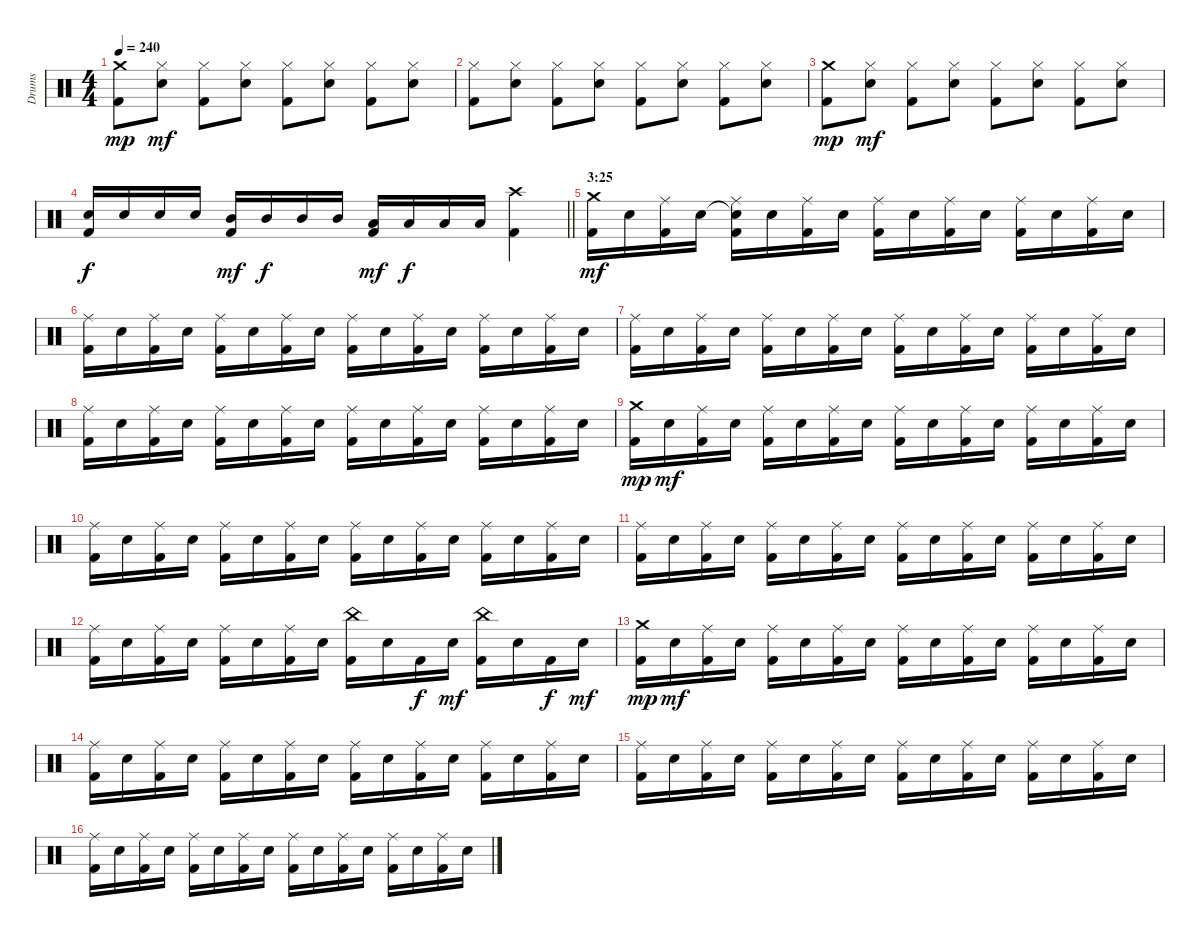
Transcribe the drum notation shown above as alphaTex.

\track ("Drums" "Drums") {instrument percussion}
\staff {score}
\articulation defaults
\ts (4 4)
\tempo 240
\clef neutral
\ks c
("Crash medium (hit)" "Kick (hit) 2").8{dy mp} ("Hi-Hat (closed)" "Electric Snare (hit)").8{dy mf} ("Hi-Hat (closed)" "Kick (hit) 2").8 ("Hi-Hat (closed)" "Electric Snare (hit)").8 ("Hi-Hat (closed)" "Kick (hit) 2").8 ("Hi-Hat (closed)" "Electric Snare (hit)").8 ("Hi-Hat (closed)" "Kick (hit) 2").8 ("Hi-Hat (closed)" "Electric Snare (hit)").8 |
("Hi-Hat (closed)" "Kick (hit) 2").8 ("Hi-Hat (closed)" "Electric Snare (hit)").8 ("Hi-Hat (closed)" "Kick (hit) 2").8 ("Hi-Hat (closed)" "Electric Snare (hit)").8 ("Hi-Hat (closed)" "Kick (hit) 2").8 ("Hi-Hat (closed)" "Electric Snare (hit)").8 ("Hi-Hat (closed)" "Kick (hit) 2").8 ("Hi-Hat (closed)" "Electric Snare (hit)").8 |
("Crash medium (hit)" "Kick (hit) 2").8{dy mp} ("Hi-Hat (closed)" "Electric Snare (hit)").8{dy mf} ("Hi-Hat (closed)" "Kick (hit) 2").8 ("Hi-Hat (closed)" "Electric Snare (hit)").8 ("Hi-Hat (closed)" "Kick (hit) 2").8 ("Hi-Hat (closed)" "Electric Snare (hit)").8 ("Hi-Hat (closed)" "Kick (hit) 2").8 ("Hi-Hat (closed)" "Electric Snare (hit)").8 |
\barLineRight lightlight
("Electric Snare (hit)" "Kick (hit) 2").16{dy f} "Electric Snare (hit)".16 "Electric Snare (hit)".16 "Electric Snare (hit)".16 ("Mid Tom (hit)" "Kick (hit) 2").16{dy mf} "Mid Tom (hit)".16{dy f} "Mid Tom (hit)".16 "Mid Tom (hit)".16 ("Low Tom (hit)" "Kick (hit) 2").16{dy mf} "Low Tom (hit)".16{dy f} "Low Tom (hit)".16 "Low Tom (hit)".16 ("Crash high (hit)" "Kick (hit) 2").4 |
\section ("" "3:25")
("Crash medium (hit)" "Kick (hit) 2").16{dy mf} "Electric Snare (hit)".16 ("Ride (middle)" "Kick (hit) 2").16 "Electric Snare (hit)".16 ("Snare (hit)"{t} "Ride (middle)" "Kick (hit) 2").16 "Electric Snare (hit)".16 ("Ride (middle)" "Kick (hit) 2").16 "Electric Snare (hit)".16 ("Ride (middle)" "Kick (hit) 2").16 "Electric Snare (hit)".16 ("Ride (middle)" "Kick (hit) 2").16 "Electric Snare (hit)".16 ("Ride (middle)" "Kick (hit) 2").16 "Electric Snare (hit)".16 ("Ride (middle)" "Kick (hit) 2").16 "Electric Snare (hit)".16 |
("Ride (middle)" "Kick (hit) 2").16 "Electric Snare (hit)".16 ("Ride (middle)" "Kick (hit) 2").16 "Electric Snare (hit)".16 ("Ride (middle)" "Kick (hit) 2").16 "Electric Snare (hit)".16 ("Ride (middle)" "Kick (hit) 2").16 "Electric Snare (hit)".16 ("Ride (middle)" "Kick (hit) 2").16 "Electric Snare (hit)".16 ("Ride (middle)" "Kick (hit) 2").16 "Electric Snare (hit)".16 ("Ride (middle)" "Kick (hit) 2").16 "Electric Snare (hit)".16 ("Ride (middle)" "Kick (hit) 2").16 "Electric Snare (hit)".16 |
("Ride (middle)" "Kick (hit) 2").16 "Electric Snare (hit)".16 ("Ride (middle)" "Kick (hit) 2").16 "Electric Snare (hit)".16 ("Ride (middle)" "Kick (hit) 2").16 "Electric Snare (hit)".16 ("Ride (middle)" "Kick (hit) 2").16 "Electric Snare (hit)".16 ("Ride (middle)" "Kick (hit) 2").16 "Electric Snare (hit)".16 ("Ride (middle)" "Kick (hit) 2").16 "Electric Snare (hit)".16 ("Ride (middle)" "Kick (hit) 2").16 "Electric Snare (hit)".16 ("Ride (middle)" "Kick (hit) 2").16 "Electric Snare (hit)".16 |
("Ride (middle)" "Kick (hit) 2").16 "Electric Snare (hit)".16 ("Ride (middle)" "Kick (hit) 2").16 "Electric Snare (hit)".16 ("Ride (middle)" "Kick (hit) 2").16 "Electric Snare (hit)".16 ("Ride (middle)" "Kick (hit) 2").16 "Electric Snare (hit)".16 ("Ride (middle)" "Kick (hit) 2").16 "Electric Snare (hit)".16 ("Ride (middle)" "Kick (hit) 2").16 "Electric Snare (hit)".16 ("Ride (middle)" "Kick (hit) 2").16 "Electric Snare (hit)".16 ("Ride (middle)" "Kick (hit) 2").16 "Electric Snare (hit)".16 |
("Crash medium (hit)" "Kick (hit) 2").16{dy mp} "Electric Snare (hit)".16{dy mf} ("Ride (middle)" "Kick (hit) 2").16 "Electric Snare (hit)".16 ("Ride (middle)" "Kick (hit) 2").16 "Electric Snare (hit)".16 ("Ride (middle)" "Kick (hit) 2").16 "Electric Snare (hit)".16 ("Ride (middle)" "Kick (hit) 2").16 "Electric Snare (hit)".16 ("Ride (middle)" "Kick (hit) 2").16 "Electric Snare (hit)".16 ("Ride (middle)" "Kick (hit) 2").16 "Electric Snare (hit)".16 ("Ride (middle)" "Kick (hit) 2").16 "Electric Snare (hit)".16 |
("Ride (middle)" "Kick (hit) 2").16 "Electric Snare (hit)".16 ("Ride (middle)" "Kick (hit) 2").16 "Electric Snare (hit)".16 ("Ride (middle)" "Kick (hit) 2").16 "Electric Snare (hit)".16 ("Ride (middle)" "Kick (hit) 2").16 "Electric Snare (hit)".16 ("Ride (middle)" "Kick (hit) 2").16 "Electric Snare (hit)".16 ("Ride (middle)" "Kick (hit) 2").16 "Electric Snare (hit)".16 ("Ride (middle)" "Kick (hit) 2").16 "Electric Snare (hit)".16 ("Ride (middle)" "Kick (hit) 2").16 "Electric Snare (hit)".16 |
("Ride (middle)" "Kick (hit) 2").16 "Electric Snare (hit)".16 ("Ride (middle)" "Kick (hit) 2").16 "Electric Snare (hit)".16 ("Ride (middle)" "Kick (hit) 2").16 "Electric Snare (hit)".16 ("Ride (middle)" "Kick (hit) 2").16 "Electric Snare (hit)".16 ("Ride (middle)" "Kick (hit) 2").16 "Electric Snare (hit)".16 ("Ride (middle)" "Kick (hit) 2").16 "Electric Snare (hit)".16 ("Ride (middle)" "Kick (hit) 2").16 "Electric Snare (hit)".16 ("Ride (middle)" "Kick (hit) 2").16 "Electric Snare (hit)".16 |
("Ride (middle)" "Kick (hit) 2").16 "Electric Snare (hit)".16 ("Ride (middle)" "Kick (hit) 2").16 "Electric Snare (hit)".16 ("Ride (middle)" "Kick (hit) 2").16 "Electric Snare (hit)".16 ("Ride (middle)" "Kick (hit) 2").16 "Electric Snare (hit)".16 ("China (hit)" "Kick (hit) 2").16 "Electric Snare (hit)".16 "Kick (hit) 2".16{dy f} "Electric Snare (hit)".16{dy mf} ("China (hit)" "Kick (hit) 2").16 "Electric Snare (hit)".16 "Kick (hit) 2".16{dy f} "Electric Snare (hit)".16{dy mf} |
("Crash medium (hit)" "Kick (hit) 2").16{dy mp} "Electric Snare (hit)".16{dy mf} ("Ride (middle)" "Kick (hit) 2").16 "Electric Snare (hit)".16 ("Ride (middle)" "Kick (hit) 2").16 "Electric Snare (hit)".16 ("Ride (middle)" "Kick (hit) 2").16 "Electric Snare (hit)".16 ("Ride (middle)" "Kick (hit) 2").16 "Electric Snare (hit)".16 ("Ride (middle)" "Kick (hit) 2").16 "Electric Snare (hit)".16 ("Ride (middle)" "Kick (hit) 2").16 "Electric Snare (hit)".16 ("Ride (middle)" "Kick (hit) 2").16 "Electric Snare (hit)".16 |
("Ride (middle)" "Kick (hit) 2").16 "Electric Snare (hit)".16 ("Ride (middle)" "Kick (hit) 2").16 "Electric Snare (hit)".16 ("Ride (middle)" "Kick (hit) 2").16 "Electric Snare (hit)".16 ("Ride (middle)" "Kick (hit) 2").16 "Electric Snare (hit)".16 ("Ride (middle)" "Kick (hit) 2").16 "Electric Snare (hit)".16 ("Ride (middle)" "Kick (hit) 2").16 "Electric Snare (hit)".16 ("Ride (middle)" "Kick (hit) 2").16 "Electric Snare (hit)".16 ("Ride (middle)" "Kick (hit) 2").16 "Electric Snare (hit)".16 |
("Ride (middle)" "Kick (hit) 2").16 "Electric Snare (hit)".16 ("Ride (middle)" "Kick (hit) 2").16 "Electric Snare (hit)".16 ("Ride (middle)" "Kick (hit) 2").16 "Electric Snare (hit)".16 ("Ride (middle)" "Kick (hit) 2").16 "Electric Snare (hit)".16 ("Ride (middle)" "Kick (hit) 2").16 "Electric Snare (hit)".16 ("Ride (middle)" "Kick (hit) 2").16 "Electric Snare (hit)".16 ("Ride (middle)" "Kick (hit) 2").16 "Electric Snare (hit)".16 ("Ride (middle)" "Kick (hit) 2").16 "Electric Snare (hit)".16 |
("Ride (middle)" "Kick (hit) 2").16 "Electric Snare (hit)".16 ("Ride (middle)" "Kick (hit) 2").16 "Electric Snare (hit)".16 ("Ride (middle)" "Kick (hit) 2").16 "Electric Snare (hit)".16 ("Ride (middle)" "Kick (hit) 2").16 "Electric Snare (hit)".16 ("Ride (middle)" "Kick (hit) 2").16 "Electric Snare (hit)".16 ("Ride (middle)" "Kick (hit) 2").16 "Electric Snare (hit)".16 ("Ride (middle)" "Kick (hit) 2").16 "Electric Snare (hit)".16 ("Ride (middle)" "Kick (hit) 2").16 "Electric Snare (hit)".16
